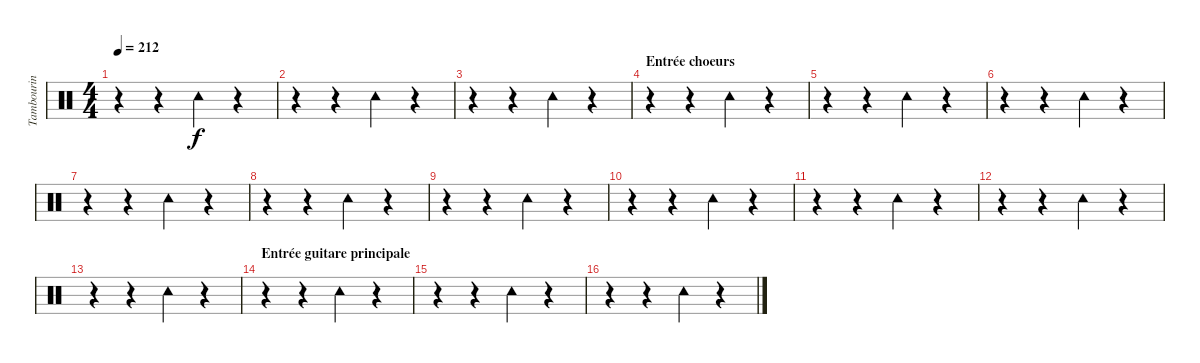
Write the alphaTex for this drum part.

\track ("Tambourin" "Tambourin") {instrument percussion}
\staff {score}
\articulation defaults
\ts (4 4)
\tempo 212
\clef neutral
\ks c
r.4{dy f} r.4 "Tambourine (hit)".4 r.4 |
r.4 r.4 "Tambourine (hit)".4 r.4 |
r.4 r.4 "Tambourine (hit)".4 r.4 |
\section ("" "Entrée choeurs")
r.4 r.4 "Tambourine (hit)".4 r.4 |
r.4 r.4 "Tambourine (hit)".4 r.4 |
r.4 r.4 "Tambourine (hit)".4 r.4 |
r.4 r.4 "Tambourine (hit)".4 r.4 |
r.4 r.4 "Tambourine (hit)".4 r.4 |
r.4 r.4 "Tambourine (hit)".4 r.4 |
r.4 r.4 "Tambourine (hit)".4 r.4 |
r.4 r.4 "Tambourine (hit)".4 r.4 |
r.4 r.4 "Tambourine (hit)".4 r.4 |
r.4 r.4 "Tambourine (hit)".4 r.4 |
\section ("" "Entrée guitare principale")
r.4 r.4 "Tambourine (hit)".4 r.4 |
r.4 r.4 "Tambourine (hit)".4 r.4 |
r.4 r.4 "Tambourine (hit)".4 r.4
